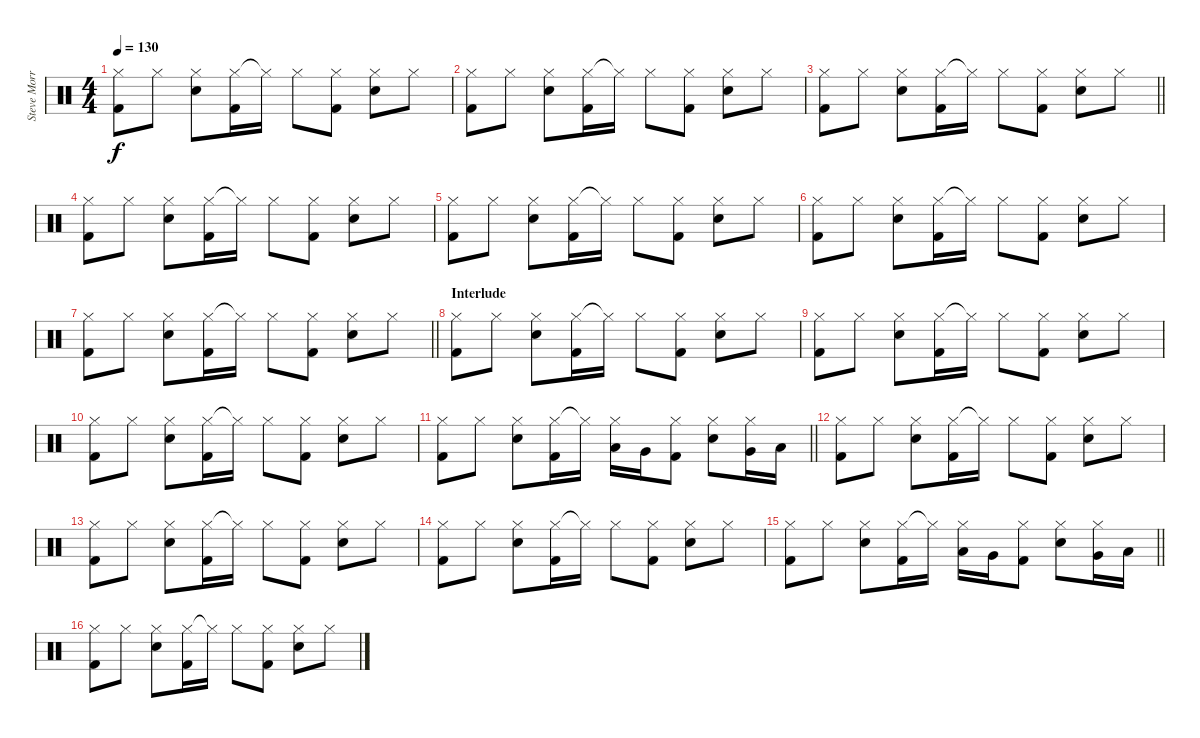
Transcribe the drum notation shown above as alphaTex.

\track ("Steve Morris" "Steve Morr") {instrument percussion}
\staff {score}
\articulation defaults
\ts (4 4)
\tempo 130
\clef neutral
\ks c
("Hi-Hat (closed)" "Kick (hit) 2").8{dy f} "Hi-Hat (closed)".8 ("Hi-Hat (closed)" "Electric Snare (hit)").8 ("Hi-Hat (closed)" "Kick (hit) 2").16 "Hi-Hat (closed)"{t}.16 "Hi-Hat (closed)".8 ("Hi-Hat (closed)" "Kick (hit) 2").8 ("Hi-Hat (closed)" "Electric Snare (hit)").8 "Hi-Hat (closed)".8 |
("Hi-Hat (closed)" "Kick (hit) 2").8 "Hi-Hat (closed)".8 ("Hi-Hat (closed)" "Electric Snare (hit)").8 ("Hi-Hat (closed)" "Kick (hit) 2").16 "Hi-Hat (closed)"{t}.16 "Hi-Hat (closed)".8 ("Hi-Hat (closed)" "Kick (hit) 2").8 ("Hi-Hat (closed)" "Electric Snare (hit)").8 "Hi-Hat (closed)".8 |
\barLineRight lightlight
("Hi-Hat (closed)" "Kick (hit) 2").8 "Hi-Hat (closed)".8 ("Hi-Hat (closed)" "Electric Snare (hit)").8 ("Hi-Hat (closed)" "Kick (hit) 2").16 "Hi-Hat (closed)"{t}.16 "Hi-Hat (closed)".8 ("Hi-Hat (closed)" "Kick (hit) 2").8 ("Hi-Hat (closed)" "Electric Snare (hit)").8 "Hi-Hat (closed)".8 |
("Hi-Hat (closed)" "Kick (hit) 2").8 "Hi-Hat (closed)".8 ("Hi-Hat (closed)" "Electric Snare (hit)").8 ("Hi-Hat (closed)" "Kick (hit) 2").16 "Hi-Hat (closed)"{t}.16 "Hi-Hat (closed)".8 ("Hi-Hat (closed)" "Kick (hit) 2").8 ("Hi-Hat (closed)" "Electric Snare (hit)").8 "Hi-Hat (closed)".8 |
("Hi-Hat (closed)" "Kick (hit) 2").8 "Hi-Hat (closed)".8 ("Hi-Hat (closed)" "Electric Snare (hit)").8 ("Hi-Hat (closed)" "Kick (hit) 2").16 "Hi-Hat (closed)"{t}.16 "Hi-Hat (closed)".8 ("Hi-Hat (closed)" "Kick (hit) 2").8 ("Hi-Hat (closed)" "Electric Snare (hit)").8 "Hi-Hat (closed)".8 |
("Hi-Hat (closed)" "Kick (hit) 2").8 "Hi-Hat (closed)".8 ("Hi-Hat (closed)" "Electric Snare (hit)").8 ("Hi-Hat (closed)" "Kick (hit) 2").16 "Hi-Hat (closed)"{t}.16 "Hi-Hat (closed)".8 ("Hi-Hat (closed)" "Kick (hit) 2").8 ("Hi-Hat (closed)" "Electric Snare (hit)").8 "Hi-Hat (closed)".8 |
\barLineRight lightlight
("Hi-Hat (closed)" "Kick (hit) 2").8 "Hi-Hat (closed)".8 ("Hi-Hat (closed)" "Electric Snare (hit)").8 ("Hi-Hat (closed)" "Kick (hit) 2").16 "Hi-Hat (closed)"{t}.16 "Hi-Hat (closed)".8 ("Hi-Hat (closed)" "Kick (hit) 2").8 ("Hi-Hat (closed)" "Electric Snare (hit)").8 "Hi-Hat (closed)".8 |
\section ("" "Interlude")
("Hi-Hat (closed)" "Kick (hit) 2").8 "Hi-Hat (closed)".8 ("Hi-Hat (closed)" "Electric Snare (hit)").8 ("Hi-Hat (closed)" "Kick (hit) 2").16 "Hi-Hat (closed)"{t}.16 "Hi-Hat (closed)".8 ("Hi-Hat (closed)" "Kick (hit) 2").8 ("Hi-Hat (closed)" "Electric Snare (hit)").8 "Hi-Hat (closed)".8 |
("Hi-Hat (closed)" "Kick (hit) 2").8 "Hi-Hat (closed)".8 ("Hi-Hat (closed)" "Electric Snare (hit)").8 ("Hi-Hat (closed)" "Kick (hit) 2").16 "Hi-Hat (closed)"{t}.16 "Hi-Hat (closed)".8 ("Hi-Hat (closed)" "Kick (hit) 2").8 ("Hi-Hat (closed)" "Electric Snare (hit)").8 "Hi-Hat (closed)".8 |
("Hi-Hat (closed)" "Kick (hit) 2").8 "Hi-Hat (closed)".8 ("Hi-Hat (closed)" "Electric Snare (hit)").8 ("Hi-Hat (closed)" "Kick (hit) 2").16 "Hi-Hat (closed)"{t}.16 "Hi-Hat (closed)".8 ("Hi-Hat (closed)" "Kick (hit) 2").8 ("Hi-Hat (closed)" "Electric Snare (hit)").8 "Hi-Hat (closed)".8 |
\barLineRight lightlight
("Hi-Hat (closed)" "Kick (hit) 2").8 "Hi-Hat (closed)".8 ("Hi-Hat (closed)" "Electric Snare (hit)").8 ("Hi-Hat (closed)" "Kick (hit) 2").16 "Hi-Hat (closed)"{t}.16 ("Hi-Hat (closed)" "Low Tom (hit)").16 "Very Low Tom (hit)".16 ("Hi-Hat (closed)" "Kick (hit) 2").8 ("Hi-Hat (closed)" "Electric Snare (hit)").8 ("Hi-Hat (closed)" "Very Low Tom (hit)").16 "Low Floor Tom (hit)".16 |
("Hi-Hat (closed)" "Kick (hit) 2").8 "Hi-Hat (closed)".8 ("Hi-Hat (closed)" "Electric Snare (hit)").8 ("Hi-Hat (closed)" "Kick (hit) 2").16 "Hi-Hat (closed)"{t}.16 "Hi-Hat (closed)".8 ("Hi-Hat (closed)" "Kick (hit) 2").8 ("Hi-Hat (closed)" "Electric Snare (hit)").8 "Hi-Hat (closed)".8 |
("Hi-Hat (closed)" "Kick (hit) 2").8 "Hi-Hat (closed)".8 ("Hi-Hat (closed)" "Electric Snare (hit)").8 ("Hi-Hat (closed)" "Kick (hit) 2").16 "Hi-Hat (closed)"{t}.16 "Hi-Hat (closed)".8 ("Hi-Hat (closed)" "Kick (hit) 2").8 ("Hi-Hat (closed)" "Electric Snare (hit)").8 "Hi-Hat (closed)".8 |
("Hi-Hat (closed)" "Kick (hit) 2").8 "Hi-Hat (closed)".8 ("Hi-Hat (closed)" "Electric Snare (hit)").8 ("Hi-Hat (closed)" "Kick (hit) 2").16 "Hi-Hat (closed)"{t}.16 "Hi-Hat (closed)".8 ("Hi-Hat (closed)" "Kick (hit) 2").8 ("Hi-Hat (closed)" "Electric Snare (hit)").8 "Hi-Hat (closed)".8 |
\barLineRight lightlight
("Hi-Hat (closed)" "Kick (hit) 2").8 "Hi-Hat (closed)".8 ("Hi-Hat (closed)" "Electric Snare (hit)").8 ("Hi-Hat (closed)" "Kick (hit) 2").16 "Hi-Hat (closed)"{t}.16 ("Hi-Hat (closed)" "Low Tom (hit)").16 "Very Low Tom (hit)".16 ("Hi-Hat (closed)" "Kick (hit) 2").8 ("Hi-Hat (closed)" "Electric Snare (hit)").8 ("Hi-Hat (closed)" "Very Low Tom (hit)").16 "Low Floor Tom (hit)".16 |
("Hi-Hat (closed)" "Kick (hit) 2").8 "Hi-Hat (closed)".8 ("Hi-Hat (closed)" "Electric Snare (hit)").8 ("Hi-Hat (closed)" "Kick (hit) 2").16 "Hi-Hat (closed)"{t}.16 "Hi-Hat (closed)".8 ("Hi-Hat (closed)" "Kick (hit) 2").8 ("Hi-Hat (closed)" "Electric Snare (hit)").8 "Hi-Hat (closed)".8
